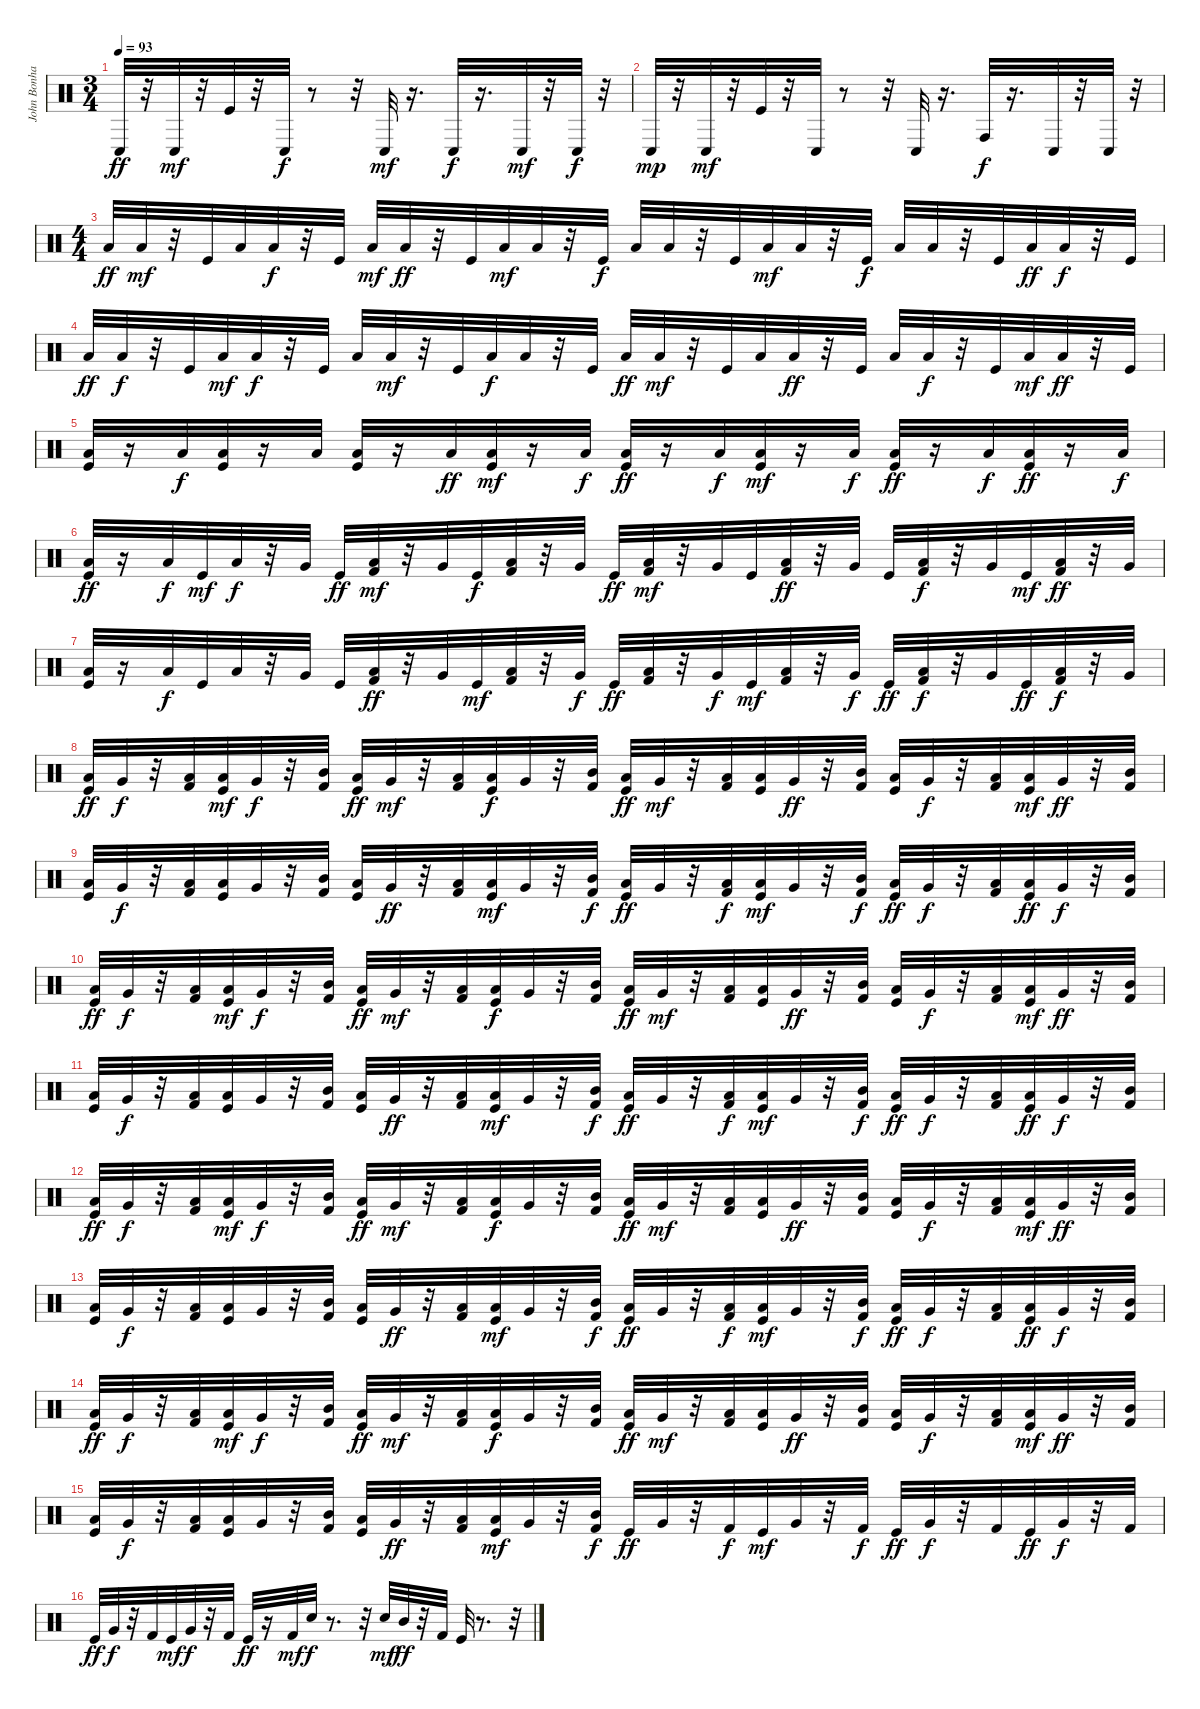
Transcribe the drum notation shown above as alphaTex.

\track ("John Bonham" "John Bonha") {instrument percussion}
\staff {score}
\articulation defaults
\ts (3 4)
\tempo 93
\clef neutral
\ks c "Conga low (hit)".32{dy ff}
r.32 "Conga low (hit)".32{dy mf} r.32 "Kick (hit)".32 r.32 "Conga low (hit)".32{dy f} r.8 r.32 "Conga low (hit)".32{dy mf} r.16{d} "Conga low (hit)".32{dy f} r.16{d} "Conga low (hit)".32{dy mf} r.32 "Conga low (hit)".32{dy f} r.32 |
"Conga low (hit)".32{dy mp} r.32 "Conga low (hit)".32{dy mf} r.32 "Kick (hit)".32 r.32 "Conga low (hit)".32 r.8 r.32 "Conga low (hit)".32 r.16{d} "Conga high (hit)".32{dy f} r.16{d} "Conga low (hit)".32 r.32 "Conga low (hit)".32 r.32 |
\ts (4 4)
"Low Tom (hit)".32{dy ff} "Low Tom (hit)".32{dy mf} r.32 "Kick (hit)".32 "Low Tom (hit)".32 "Low Tom (hit)".32{dy f} r.32 "Kick (hit)".32 "Low Tom (hit)".32{dy mf} "Low Tom (hit)".32{dy ff} r.32 "Kick (hit)".32 "Low Tom (hit)".32{dy mf} "Low Tom (hit)".32 r.32 "Kick (hit)".32{dy f} "Low Tom (hit)".32 "Low Tom (hit)".32 r.32 "Kick (hit)".32 "Low Tom (hit)".32{dy mf} "Low Tom (hit)".32 r.32 "Kick (hit)".32{dy f} "Low Tom (hit)".32 "Low Tom (hit)".32 r.32 "Kick (hit)".32 "Low Tom (hit)".32{dy ff} "Low Tom (hit)".32{dy f} r.32 "Kick (hit)".32 |
"Low Tom (hit)".32{dy ff} "Low Tom (hit)".32{dy f} r.32 "Kick (hit)".32 "Low Tom (hit)".32{dy mf} "Low Tom (hit)".32{dy f} r.32 "Kick (hit)".32 "Low Tom (hit)".32 "Low Tom (hit)".32{dy mf} r.32 "Kick (hit)".32 "Low Tom (hit)".32{dy f} "Low Tom (hit)".32 r.32 "Kick (hit)".32 "Low Tom (hit)".32{dy ff} "Low Tom (hit)".32{dy mf} r.32 "Kick (hit)".32 "Low Tom (hit)".32 "Low Tom (hit)".32{dy ff} r.32 "Kick (hit)".32 "Low Tom (hit)".32 "Low Tom (hit)".32{dy f} r.32 "Kick (hit)".32 "Low Tom (hit)".32{dy mf} "Low Tom (hit)".32{dy ff} r.32 "Kick (hit)".32 |
("Low Tom (hit)" "Kick (hit)").32 r.16 "Low Tom (hit)".32{dy f} ("Low Tom (hit)" "Kick (hit)").32 r.16 "Low Tom (hit)".32 ("Kick (hit)" "Low Tom (hit)").32 r.16 "Low Tom (hit)".32{dy ff} ("Kick (hit)" "Low Tom (hit)").32{dy mf} r.16 "Low Tom (hit)".32{dy f} ("Low Tom (hit)" "Kick (hit)").32{dy ff} r.16 "Low Tom (hit)".32{dy f} ("Low Tom (hit)" "Kick (hit)").32{dy mf} r.16 "Low Tom (hit)".32{dy f} ("Low Tom (hit)" "Kick (hit)").32{dy ff} r.16 "Low Tom (hit)".32{dy f} ("Low Tom (hit)" "Kick (hit)").32{dy ff} r.16 "Low Tom (hit)".32{dy f} |
("Kick (hit)" "Low Tom (hit)").32{dy ff} r.16 "Low Tom (hit)".32{dy f} "Kick (hit)".32{dy mf} "Low Tom (hit)".32{dy f} r.32 "Very Low Tom (hit)".32 "Kick (hit)".32{dy ff} ("Low Tom (hit)" "Kick (hit) 2").32{dy mf} r.32 "Very Low Tom (hit)".32 "Kick (hit)".32{dy f} ("Low Tom (hit)" "Kick (hit) 2").32 r.32 "Very Low Tom (hit)".32 "Kick (hit)".32{dy ff} ("Low Tom (hit)" "Kick (hit) 2").32{dy mf} r.32 "Very Low Tom (hit)".32 "Kick (hit)".32 ("Low Tom (hit)" "Kick (hit) 2").32{dy ff} r.32 "Very Low Tom (hit)".32 "Kick (hit)".32 ("Low Tom (hit)" "Kick (hit) 2").32{dy f} r.32 "Very Low Tom (hit)".32 "Kick (hit)".32{dy mf} ("Low Tom (hit)" "Kick (hit) 2").32{dy ff} r.32 "Very Low Tom (hit)".32 |
("Kick (hit)" "Low Tom (hit)").32 r.16 "Low Tom (hit)".32{dy f} "Kick (hit)".32 "Low Tom (hit)".32 r.32 "Very Low Tom (hit)".32 "Kick (hit)".32 ("Low Tom (hit)" "Kick (hit) 2").32{dy ff} r.32 "Very Low Tom (hit)".32 "Kick (hit)".32{dy mf} ("Low Tom (hit)" "Kick (hit) 2").32 r.32 "Very Low Tom (hit)".32{dy f} "Kick (hit)".32{dy ff} ("Low Tom (hit)" "Kick (hit) 2").32 r.32 "Very Low Tom (hit)".32{dy f} "Kick (hit)".32{dy mf} ("Low Tom (hit)" "Kick (hit) 2").32 r.32 "Very Low Tom (hit)".32{dy f} "Kick (hit)".32{dy ff} ("Low Tom (hit)" "Kick (hit) 2").32{dy f} r.32 "Very Low Tom (hit)".32 "Kick (hit)".32{dy ff} ("Low Tom (hit)" "Kick (hit) 2").32{dy f} r.32 "Very Low Tom (hit)".32 |
("Low Tom (hit)" "Kick (hit)").32{dy ff} "Very Low Tom (hit)".32{dy f} r.32 ("Low Tom (hit)" "Kick (hit) 2").32 ("Low Tom (hit)" "Kick (hit)").32{dy mf} "Very Low Tom (hit)".32{dy f} r.32 ("Mid Tom (hit)" "Kick (hit) 2").32 ("Low Tom (hit)" "Kick (hit)").32{dy ff} "Very Low Tom (hit)".32{dy mf} r.32 ("Low Tom (hit)" "Kick (hit) 2").32 ("Low Tom (hit)" "Kick (hit)").32{dy f} "Very Low Tom (hit)".32 r.32 ("Mid Tom (hit)" "Kick (hit) 2").32 ("Low Tom (hit)" "Kick (hit)").32{dy ff} "Very Low Tom (hit)".32{dy mf} r.32 ("Low Tom (hit)" "Kick (hit) 2").32 ("Low Tom (hit)" "Kick (hit)").32 "Very Low Tom (hit)".32{dy ff} r.32 ("Mid Tom (hit)" "Kick (hit) 2").32 ("Low Tom (hit)" "Kick (hit)").32 "Very Low Tom (hit)".32{dy f} r.32 ("Low Tom (hit)" "Kick (hit) 2").32 ("Low Tom (hit)" "Kick (hit)").32{dy mf} "Very Low Tom (hit)".32{dy ff} r.32 ("Mid Tom (hit)" "Kick (hit) 2").32 |
("Low Tom (hit)" "Kick (hit)").32 "Very Low Tom (hit)".32{dy f} r.32 ("Low Tom (hit)" "Kick (hit) 2").32 ("Low Tom (hit)" "Kick (hit)").32 "Very Low Tom (hit)".32 r.32 ("Mid Tom (hit)" "Kick (hit) 2").32 ("Low Tom (hit)" "Kick (hit)").32 "Very Low Tom (hit)".32{dy ff} r.32 ("Low Tom (hit)" "Kick (hit) 2").32 ("Low Tom (hit)" "Kick (hit)").32{dy mf} "Very Low Tom (hit)".32 r.32 ("Mid Tom (hit)" "Kick (hit) 2").32{dy f} ("Low Tom (hit)" "Kick (hit)").32{dy ff} "Very Low Tom (hit)".32 r.32 ("Low Tom (hit)" "Kick (hit) 2").32{dy f} ("Low Tom (hit)" "Kick (hit)").32{dy mf} "Very Low Tom (hit)".32 r.32 ("Mid Tom (hit)" "Kick (hit) 2").32{dy f} ("Low Tom (hit)" "Kick (hit)").32{dy ff} "Very Low Tom (hit)".32{dy f} r.32 ("Low Tom (hit)" "Kick (hit) 2").32 ("Low Tom (hit)" "Kick (hit)").32{dy ff} "Very Low Tom (hit)".32{dy f} r.32 ("Mid Tom (hit)" "Kick (hit) 2").32 |
("Low Tom (hit)" "Kick (hit)").32{dy ff} "Very Low Tom (hit)".32{dy f} r.32 ("Low Tom (hit)" "Kick (hit) 2").32 ("Low Tom (hit)" "Kick (hit)").32{dy mf} "Very Low Tom (hit)".32{dy f} r.32 ("Mid Tom (hit)" "Kick (hit) 2").32 ("Low Tom (hit)" "Kick (hit)").32{dy ff} "Very Low Tom (hit)".32{dy mf} r.32 ("Low Tom (hit)" "Kick (hit) 2").32 ("Low Tom (hit)" "Kick (hit)").32{dy f} "Very Low Tom (hit)".32 r.32 ("Mid Tom (hit)" "Kick (hit) 2").32 ("Low Tom (hit)" "Kick (hit)").32{dy ff} "Very Low Tom (hit)".32{dy mf} r.32 ("Low Tom (hit)" "Kick (hit) 2").32 ("Low Tom (hit)" "Kick (hit)").32 "Very Low Tom (hit)".32{dy ff} r.32 ("Mid Tom (hit)" "Kick (hit) 2").32 ("Low Tom (hit)" "Kick (hit)").32 "Very Low Tom (hit)".32{dy f} r.32 ("Low Tom (hit)" "Kick (hit) 2").32 ("Low Tom (hit)" "Kick (hit)").32{dy mf} "Very Low Tom (hit)".32{dy ff} r.32 ("Mid Tom (hit)" "Kick (hit) 2").32 |
("Low Tom (hit)" "Kick (hit)").32 "Very Low Tom (hit)".32{dy f} r.32 ("Low Tom (hit)" "Kick (hit) 2").32 ("Low Tom (hit)" "Kick (hit)").32 "Very Low Tom (hit)".32 r.32 ("Mid Tom (hit)" "Kick (hit) 2").32 ("Low Tom (hit)" "Kick (hit)").32 "Very Low Tom (hit)".32{dy ff} r.32 ("Low Tom (hit)" "Kick (hit) 2").32 ("Low Tom (hit)" "Kick (hit)").32{dy mf} "Very Low Tom (hit)".32 r.32 ("Mid Tom (hit)" "Kick (hit) 2").32{dy f} ("Low Tom (hit)" "Kick (hit)").32{dy ff} "Very Low Tom (hit)".32 r.32 ("Low Tom (hit)" "Kick (hit) 2").32{dy f} ("Low Tom (hit)" "Kick (hit)").32{dy mf} "Very Low Tom (hit)".32 r.32 ("Mid Tom (hit)" "Kick (hit) 2").32{dy f} ("Low Tom (hit)" "Kick (hit)").32{dy ff} "Very Low Tom (hit)".32{dy f} r.32 ("Low Tom (hit)" "Kick (hit) 2").32 ("Low Tom (hit)" "Kick (hit)").32{dy ff} "Very Low Tom (hit)".32{dy f} r.32 ("Mid Tom (hit)" "Kick (hit) 2").32 |
("Low Tom (hit)" "Kick (hit)").32{dy ff} "Very Low Tom (hit)".32{dy f} r.32 ("Low Tom (hit)" "Kick (hit) 2").32 ("Low Tom (hit)" "Kick (hit)").32{dy mf} "Very Low Tom (hit)".32{dy f} r.32 ("Mid Tom (hit)" "Kick (hit) 2").32 ("Low Tom (hit)" "Kick (hit)").32{dy ff} "Very Low Tom (hit)".32{dy mf} r.32 ("Low Tom (hit)" "Kick (hit) 2").32 ("Low Tom (hit)" "Kick (hit)").32{dy f} "Very Low Tom (hit)".32 r.32 ("Mid Tom (hit)" "Kick (hit) 2").32 ("Low Tom (hit)" "Kick (hit)").32{dy ff} "Very Low Tom (hit)".32{dy mf} r.32 ("Low Tom (hit)" "Kick (hit) 2").32 ("Low Tom (hit)" "Kick (hit)").32 "Very Low Tom (hit)".32{dy ff} r.32 ("Mid Tom (hit)" "Kick (hit) 2").32 ("Low Tom (hit)" "Kick (hit)").32 "Very Low Tom (hit)".32{dy f} r.32 ("Low Tom (hit)" "Kick (hit) 2").32 ("Low Tom (hit)" "Kick (hit)").32{dy mf} "Very Low Tom (hit)".32{dy ff} r.32 ("Mid Tom (hit)" "Kick (hit) 2").32 |
("Low Tom (hit)" "Kick (hit)").32 "Very Low Tom (hit)".32{dy f} r.32 ("Low Tom (hit)" "Kick (hit) 2").32 ("Low Tom (hit)" "Kick (hit)").32 "Very Low Tom (hit)".32 r.32 ("Mid Tom (hit)" "Kick (hit) 2").32 ("Low Tom (hit)" "Kick (hit)").32 "Very Low Tom (hit)".32{dy ff} r.32 ("Low Tom (hit)" "Kick (hit) 2").32 ("Low Tom (hit)" "Kick (hit)").32{dy mf} "Very Low Tom (hit)".32 r.32 ("Mid Tom (hit)" "Kick (hit) 2").32{dy f} ("Low Tom (hit)" "Kick (hit)").32{dy ff} "Very Low Tom (hit)".32 r.32 ("Low Tom (hit)" "Kick (hit) 2").32{dy f} ("Low Tom (hit)" "Kick (hit)").32{dy mf} "Very Low Tom (hit)".32 r.32 ("Mid Tom (hit)" "Kick (hit) 2").32{dy f} ("Low Tom (hit)" "Kick (hit)").32{dy ff} "Very Low Tom (hit)".32{dy f} r.32 ("Low Tom (hit)" "Kick (hit) 2").32 ("Low Tom (hit)" "Kick (hit)").32{dy ff} "Very Low Tom (hit)".32{dy f} r.32 ("Mid Tom (hit)" "Kick (hit) 2").32 |
("Low Tom (hit)" "Kick (hit)").32{dy ff} "Very Low Tom (hit)".32{dy f} r.32 ("Low Tom (hit)" "Kick (hit) 2").32 ("Low Tom (hit)" "Kick (hit)").32{dy mf} "Very Low Tom (hit)".32{dy f} r.32 ("Mid Tom (hit)" "Kick (hit) 2").32 ("Low Tom (hit)" "Kick (hit)").32{dy ff} "Very Low Tom (hit)".32{dy mf} r.32 ("Low Tom (hit)" "Kick (hit) 2").32 ("Low Tom (hit)" "Kick (hit)").32{dy f} "Very Low Tom (hit)".32 r.32 ("Mid Tom (hit)" "Kick (hit) 2").32 ("Low Tom (hit)" "Kick (hit)").32{dy ff} "Very Low Tom (hit)".32{dy mf} r.32 ("Low Tom (hit)" "Kick (hit) 2").32 ("Low Tom (hit)" "Kick (hit)").32 "Very Low Tom (hit)".32{dy ff} r.32 ("Mid Tom (hit)" "Kick (hit) 2").32 ("Low Tom (hit)" "Kick (hit)").32 "Very Low Tom (hit)".32{dy f} r.32 ("Low Tom (hit)" "Kick (hit) 2").32 ("Low Tom (hit)" "Kick (hit)").32{dy mf} "Very Low Tom (hit)".32{dy ff} r.32 ("Mid Tom (hit)" "Kick (hit) 2").32 |
("Low Tom (hit)" "Kick (hit)").32 "Very Low Tom (hit)".32{dy f} r.32 ("Low Tom (hit)" "Kick (hit) 2").32 ("Low Tom (hit)" "Kick (hit)").32 "Very Low Tom (hit)".32 r.32 ("Mid Tom (hit)" "Kick (hit) 2").32 ("Low Tom (hit)" "Kick (hit)").32 "Very Low Tom (hit)".32{dy ff} r.32 ("Low Tom (hit)" "Kick (hit) 2").32 ("Low Tom (hit)" "Kick (hit)").32{dy mf} "Very Low Tom (hit)".32 r.32 ("Mid Tom (hit)" "Kick (hit) 2").32{dy f} "Kick (hit)".32{dy ff} "Very Low Tom (hit)".32 r.32 "Kick (hit) 2".32{dy f} "Kick (hit)".32{dy mf} "Very Low Tom (hit)".32 r.32 "Kick (hit) 2".32{dy f} "Kick (hit)".32{dy ff} "Very Low Tom (hit)".32{dy f} r.32 "Kick (hit) 2".32 "Kick (hit)".32{dy ff} "Very Low Tom (hit)".32{dy f} r.32 "Kick (hit) 2".32 |
"Kick (hit)".32{dy ff} "Very Low Tom (hit)".32{dy f} r.32 "Kick (hit) 2".32 "Kick (hit)".32{dy mf} "Very Low Tom (hit)".32{dy f} r.32 "Kick (hit) 2".32 "Kick (hit)".32{dy ff} r.16 "Kick (hit) 2".32{dy mf} "Electric Snare (hit)".32{dy f} r.8{d} r.32 "Electric Snare (hit)".32{dy mf} "Mid Tom (hit)".32{dy ff} r.32 "Kick (hit) 2".32 "Kick (hit)".32 r.8{d} r.32
